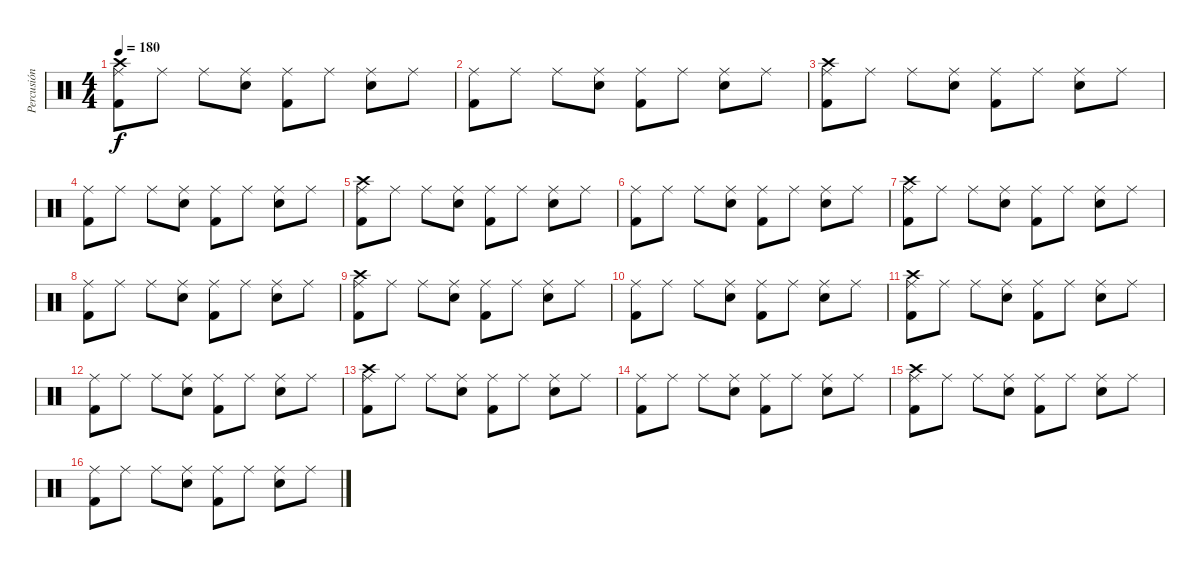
\track ("Percusión" "Percusión") {instrument percussion}
\staff {score}
\articulation defaults
\ts (4 4)
\tempo 180
\clef neutral
\ks c
("Kick (hit) 2" "Crash high (hit)" "Ride (middle)").8{dy f} "Ride (middle)".8 "Ride (middle)".8 ("Snare (hit) 2" "Ride (middle)").8 ("Kick (hit) 2" "Ride (middle)").8 "Ride (middle)".8 ("Snare (hit) 2" "Ride (middle)").8 "Ride (middle)".8 |
("Kick (hit) 2" "Ride (middle)").8 "Ride (middle)".8 "Ride (middle)".8 ("Snare (hit) 2" "Ride (middle)").8 ("Kick (hit) 2" "Ride (middle)").8 "Ride (middle)".8 ("Snare (hit) 2" "Ride (middle)").8 "Ride (middle)".8 |
("Kick (hit) 2" "Crash high (hit)" "Ride (middle)").8 "Ride (middle)".8 "Ride (middle)".8 ("Snare (hit) 2" "Ride (middle)").8 ("Kick (hit) 2" "Ride (middle)").8 "Ride (middle)".8 ("Snare (hit) 2" "Ride (middle)").8 "Ride (middle)".8 |
("Kick (hit) 2" "Ride (middle)").8 "Ride (middle)".8 "Ride (middle)".8 ("Snare (hit) 2" "Ride (middle)").8 ("Kick (hit) 2" "Ride (middle)").8 "Ride (middle)".8 ("Snare (hit) 2" "Ride (middle)").8 "Ride (middle)".8 |
("Kick (hit) 2" "Crash high (hit)" "Ride (middle)").8 "Ride (middle)".8 "Ride (middle)".8 ("Snare (hit) 2" "Ride (middle)").8 ("Kick (hit) 2" "Ride (middle)").8 "Ride (middle)".8 ("Snare (hit) 2" "Ride (middle)").8 "Ride (middle)".8 |
("Kick (hit) 2" "Ride (middle)").8 "Ride (middle)".8 "Ride (middle)".8 ("Snare (hit) 2" "Ride (middle)").8 ("Kick (hit) 2" "Ride (middle)").8 "Ride (middle)".8 ("Snare (hit) 2" "Ride (middle)").8 "Ride (middle)".8 |
("Kick (hit) 2" "Crash high (hit)" "Ride (middle)").8 "Ride (middle)".8 "Ride (middle)".8 ("Snare (hit) 2" "Ride (middle)").8 ("Kick (hit) 2" "Ride (middle)").8 "Ride (middle)".8 ("Snare (hit) 2" "Ride (middle)").8 "Ride (middle)".8 |
("Kick (hit) 2" "Ride (middle)").8 "Ride (middle)".8 "Ride (middle)".8 ("Snare (hit) 2" "Ride (middle)").8 ("Kick (hit) 2" "Ride (middle)").8 "Ride (middle)".8 ("Snare (hit) 2" "Ride (middle)").8 "Ride (middle)".8 |
("Kick (hit) 2" "Crash high (hit)" "Ride (middle)").8 "Ride (middle)".8 "Ride (middle)".8 ("Snare (hit) 2" "Ride (middle)").8 ("Kick (hit) 2" "Ride (middle)").8 "Ride (middle)".8 ("Snare (hit) 2" "Ride (middle)").8 "Ride (middle)".8 |
("Kick (hit) 2" "Ride (middle)").8 "Ride (middle)".8 "Ride (middle)".8 ("Snare (hit) 2" "Ride (middle)").8 ("Kick (hit) 2" "Ride (middle)").8 "Ride (middle)".8 ("Snare (hit) 2" "Ride (middle)").8 "Ride (middle)".8 |
("Kick (hit) 2" "Crash high (hit)" "Ride (middle)").8 "Ride (middle)".8 "Ride (middle)".8 ("Snare (hit) 2" "Ride (middle)").8 ("Kick (hit) 2" "Ride (middle)").8 "Ride (middle)".8 ("Snare (hit) 2" "Ride (middle)").8 "Ride (middle)".8 |
("Kick (hit) 2" "Ride (middle)").8 "Ride (middle)".8 "Ride (middle)".8 ("Snare (hit) 2" "Ride (middle)").8 ("Kick (hit) 2" "Ride (middle)").8 "Ride (middle)".8 ("Snare (hit) 2" "Ride (middle)").8 "Ride (middle)".8 |
("Kick (hit) 2" "Crash high (hit)" "Ride (middle)").8 "Ride (middle)".8 "Ride (middle)".8 ("Snare (hit) 2" "Ride (middle)").8 ("Kick (hit) 2" "Ride (middle)").8 "Ride (middle)".8 ("Snare (hit) 2" "Ride (middle)").8 "Ride (middle)".8 |
("Kick (hit) 2" "Ride (middle)").8 "Ride (middle)".8 "Ride (middle)".8 ("Snare (hit) 2" "Ride (middle)").8 ("Kick (hit) 2" "Ride (middle)").8 "Ride (middle)".8 ("Snare (hit) 2" "Ride (middle)").8 "Ride (middle)".8 |
("Kick (hit) 2" "Crash high (hit)" "Ride (middle)").8 "Ride (middle)".8 "Ride (middle)".8 ("Snare (hit) 2" "Ride (middle)").8 ("Kick (hit) 2" "Ride (middle)").8 "Ride (middle)".8 ("Snare (hit) 2" "Ride (middle)").8 "Ride (middle)".8 |
("Kick (hit) 2" "Ride (middle)").8 "Ride (middle)".8 "Ride (middle)".8 ("Snare (hit) 2" "Ride (middle)").8 ("Kick (hit) 2" "Ride (middle)").8 "Ride (middle)".8 ("Snare (hit) 2" "Ride (middle)").8 "Ride (middle)".8
